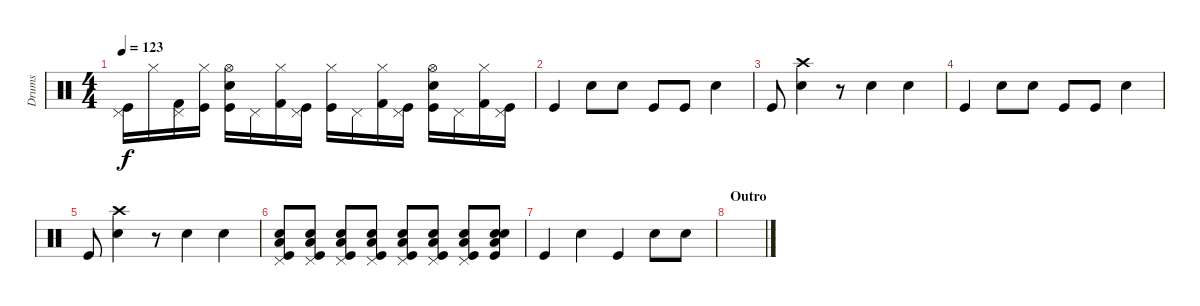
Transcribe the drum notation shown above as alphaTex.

\track ("Drums" "Drums") {instrument percussion}
\staff {score}
\articulation defaults
\ts (4 4)
\tempo 123
\clef neutral
\ks c
("Pedal Hi-Hat (hit)" "Kick (hit)").16{dy f} "Hi-Hat (closed)".16 ("Pedal Hi-Hat (hit)" "Kick (hit) 2").16 ("Hi-Hat (closed)" "Kick (hit)").16 ("Hi-Hat (open)" "Snare (hit) 2" "Kick (hit)").16 "Pedal Hi-Hat (hit)".16 ("Hi-Hat (closed)" "Kick (hit) 2").16 ("Pedal Hi-Hat (hit)" "Kick (hit)").16 ("Hi-Hat (closed)" "Kick (hit)").16 "Pedal Hi-Hat (hit)".16 ("Hi-Hat (closed)" "Kick (hit) 2").16 ("Pedal Hi-Hat (hit)" "Kick (hit)").16 ("Hi-Hat (open)" "Snare (hit) 2" "Kick (hit)").16 "Pedal Hi-Hat (hit)".16 ("Hi-Hat (closed)" "Kick (hit) 2").16 ("Pedal Hi-Hat (hit)" "Kick (hit)").16 |
"Kick (hit)".4 "Snare (hit) 2".8 "Snare (hit) 2".8 "Kick (hit)".8 "Kick (hit)".8 "Snare (hit) 2".4 |
"Kick (hit)".8 ("Crash high (hit)" "Snare (hit) 2").4 r.8 "Snare (hit) 2".4 "Snare (hit) 2".4 |
"Kick (hit)".4 "Snare (hit) 2".8 "Snare (hit) 2".8 "Kick (hit)".8 "Kick (hit)".8 "Snare (hit) 2".4 |
"Kick (hit)".8 ("Crash high (hit)" "Snare (hit) 2").4 r.8 "Snare (hit) 2".4 "Snare (hit) 2".4 |
("Pedal Hi-Hat (hit)" "Snare (hit) 2" "Low Floor Tom (hit)" "Kick (hit)").8 ("Pedal Hi-Hat (hit)" "Snare (hit) 2" "Low Floor Tom (hit)" "Kick (hit)").8 ("Pedal Hi-Hat (hit)" "Snare (hit) 2" "Low Floor Tom (hit)" "Kick (hit)").8 ("Pedal Hi-Hat (hit)" "Snare (hit) 2" "Low Floor Tom (hit)" "Kick (hit)").8 ("Pedal Hi-Hat (hit)" "Snare (hit) 2" "Low Floor Tom (hit)" "Kick (hit)").8 ("Pedal Hi-Hat (hit)" "Snare (hit) 2" "Low Floor Tom (hit)" "Kick (hit)").8 ("Pedal Hi-Hat (hit)" "Snare (hit) 2" "Low Floor Tom (hit)" "Kick (hit)").8 ("Snare (hit)" "Snare (hit) 2" "Low Floor Tom (hit)" "Kick (hit)").8 |
"Kick (hit)".4 "Hand Clap (hit)".4 "Kick (hit)".4 "Hand Clap (hit)".8 "Hand Clap (hit)".8 |
\section ("" "Outro")
